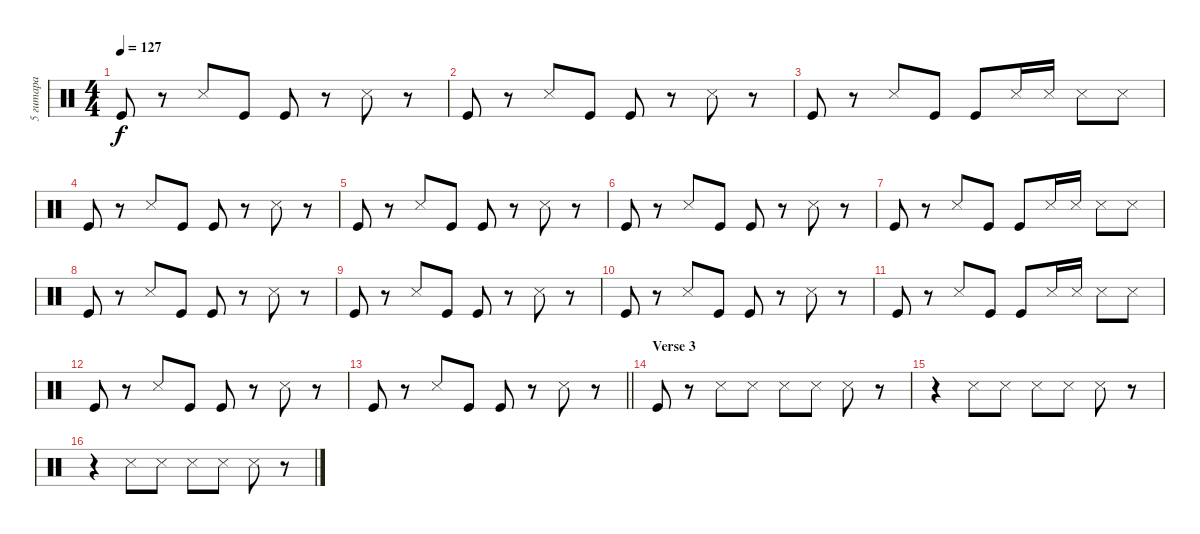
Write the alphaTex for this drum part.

\track ("5 гитара" "5 гитара") {instrument percussion}
\staff {score}
\articulation defaults
\ts (4 4)
\tempo 127
\clef neutral
\ks c "Kick (hit)".8{dy f}
r.8 "Snare (side stick) 3".8 "Kick (hit)".8 "Kick (hit)".8 r.8 "Snare (side stick) 3".8 r.8 |
"Kick (hit)".8 r.8 "Snare (side stick) 3".8 "Kick (hit)".8 "Kick (hit)".8 r.8 "Snare (side stick) 3".8 r.8 |
"Kick (hit)".8 r.8 "Snare (side stick) 3".8 "Kick (hit)".8 "Kick (hit)".8 "Snare (side stick) 3".16 "Snare (side stick) 3".16 "Snare (side stick) 3".8 "Snare (side stick) 3".8 |
"Kick (hit)".8 r.8 "Snare (side stick) 3".8 "Kick (hit)".8 "Kick (hit)".8 r.8 "Snare (side stick) 3".8 r.8 |
"Kick (hit)".8 r.8 "Snare (side stick) 3".8 "Kick (hit)".8 "Kick (hit)".8 r.8 "Snare (side stick) 3".8 r.8 |
"Kick (hit)".8 r.8 "Snare (side stick) 3".8 "Kick (hit)".8 "Kick (hit)".8 r.8 "Snare (side stick) 3".8 r.8 |
"Kick (hit)".8 r.8 "Snare (side stick) 3".8 "Kick (hit)".8 "Kick (hit)".8 "Snare (side stick) 3".16 "Snare (side stick) 3".16 "Snare (side stick) 3".8 "Snare (side stick) 3".8 |
"Kick (hit)".8 r.8 "Snare (side stick) 3".8 "Kick (hit)".8 "Kick (hit)".8 r.8 "Snare (side stick) 3".8 r.8 |
"Kick (hit)".8 r.8 "Snare (side stick) 3".8 "Kick (hit)".8 "Kick (hit)".8 r.8 "Snare (side stick) 3".8 r.8 |
"Kick (hit)".8 r.8 "Snare (side stick) 3".8 "Kick (hit)".8 "Kick (hit)".8 r.8 "Snare (side stick) 3".8 r.8 |
"Kick (hit)".8 r.8 "Snare (side stick) 3".8 "Kick (hit)".8 "Kick (hit)".8 "Snare (side stick) 3".16 "Snare (side stick) 3".16 "Snare (side stick) 3".8 "Snare (side stick) 3".8 |
"Kick (hit)".8 r.8 "Snare (side stick) 3".8 "Kick (hit)".8 "Kick (hit)".8 r.8 "Snare (side stick) 3".8 r.8 |
\barLineRight lightlight "Kick (hit)".8
r.8 "Snare (side stick) 3".8 "Kick (hit)".8 "Kick (hit)".8 r.8 "Snare (side stick) 3".8 r.8 |
\section ("" "Verse 3")
"Kick (hit)".8 r.8 "Snare (side stick) 3".8 "Snare (side stick) 3".8 "Snare (side stick) 3".8 "Snare (side stick) 3".8 "Snare (side stick) 3".8 r.8 |
r.4 "Snare (side stick) 3".8 "Snare (side stick) 3".8 "Snare (side stick) 3".8 "Snare (side stick) 3".8 "Snare (side stick) 3".8 r.8 |
r.4 "Snare (side stick) 3".8 "Snare (side stick) 3".8 "Snare (side stick) 3".8 "Snare (side stick) 3".8 "Snare (side stick) 3".8 r.8
